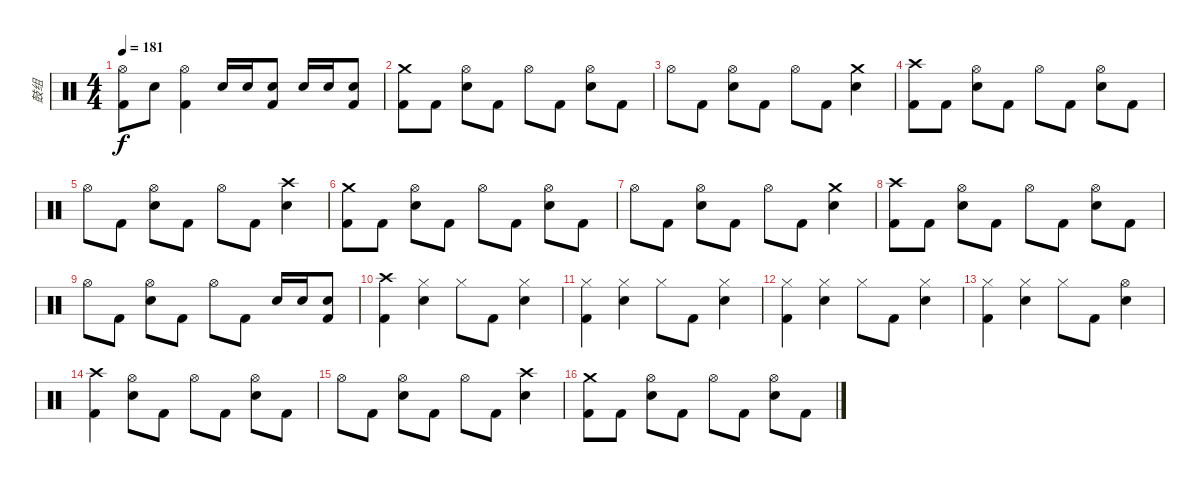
\track ("鼓组" "鼓组") {instrument percussion}
\staff {score}
\articulation defaults
\ts (4 4)
\tempo 181
\clef neutral
\ks c
("Hi-Hat (open)" "Kick (hit) 2").8{dy f} "Snare (hit) 2".8 ("Hi-Hat (open)" "Kick (hit) 2").4 "Snare (hit) 2".16 "Snare (hit) 2".16 ("Snare (hit) 2" "Kick (hit) 2").8 "Snare (hit) 2".16 "Snare (hit) 2".16 ("Snare (hit) 2" "Kick (hit) 2").8 |
("Crash medium (hit)" "Kick (hit) 2").8 "Kick (hit) 2".8 ("Hi-Hat (open)" "Snare (hit) 2").8 "Kick (hit) 2".8 "Hi-Hat (open)".8 "Kick (hit) 2".8 ("Hi-Hat (open)" "Snare (hit) 2").8 "Kick (hit) 2".8 |
"Hi-Hat (open)".8 "Kick (hit) 2".8 ("Hi-Hat (open)" "Snare (hit) 2").8 "Kick (hit) 2".8 "Hi-Hat (open)".8 "Kick (hit) 2".8 ("Crash medium (hit)" "Snare (hit) 2").4 |
("Crash high (hit)" "Kick (hit) 2").8 "Kick (hit) 2".8 ("Hi-Hat (open)" "Snare (hit) 2").8 "Kick (hit) 2".8 "Hi-Hat (open)".8 "Kick (hit) 2".8 ("Hi-Hat (open)" "Snare (hit) 2").8 "Kick (hit) 2".8 |
"Hi-Hat (open)".8 "Kick (hit) 2".8 ("Hi-Hat (open)" "Snare (hit) 2").8 "Kick (hit) 2".8 "Hi-Hat (open)".8 "Kick (hit) 2".8 ("Crash high (hit)" "Snare (hit) 2").4 |
("Crash medium (hit)" "Kick (hit) 2").8 "Kick (hit) 2".8 ("Hi-Hat (open)" "Snare (hit) 2").8 "Kick (hit) 2".8 "Hi-Hat (open)".8 "Kick (hit) 2".8 ("Hi-Hat (open)" "Snare (hit) 2").8 "Kick (hit) 2".8 |
"Hi-Hat (open)".8 "Kick (hit) 2".8 ("Hi-Hat (open)" "Snare (hit) 2").8 "Kick (hit) 2".8 "Hi-Hat (open)".8 "Kick (hit) 2".8 ("Crash medium (hit)" "Snare (hit) 2").4 |
("Crash high (hit)" "Kick (hit) 2").8 "Kick (hit) 2".8 ("Hi-Hat (open)" "Snare (hit) 2").8 "Kick (hit) 2".8 "Hi-Hat (open)".8 "Kick (hit) 2".8 ("Hi-Hat (open)" "Snare (hit) 2").8 "Kick (hit) 2".8 |
"Hi-Hat (open)".8 "Kick (hit) 2".8 ("Hi-Hat (open)" "Snare (hit) 2").8 "Kick (hit) 2".8 "Hi-Hat (open)".8 "Kick (hit) 2".8 "Snare (hit) 2".16 "Snare (hit) 2".16 ("Snare (hit) 2" "Kick (hit) 2").8 |
("Crash high (hit)" "Kick (hit) 2").4 ("Hi-Hat (closed)" "Snare (hit) 2").4 "Hi-Hat (closed)".8 "Kick (hit) 2".8 ("Hi-Hat (closed)" "Snare (hit) 2").4 |
("Hi-Hat (closed)" "Kick (hit) 2").4 ("Hi-Hat (closed)" "Snare (hit) 2").4 "Hi-Hat (closed)".8 "Kick (hit) 2".8 ("Hi-Hat (closed)" "Snare (hit) 2").4 |
("Hi-Hat (closed)" "Kick (hit) 2").4 ("Hi-Hat (closed)" "Snare (hit) 2").4 "Hi-Hat (closed)".8 "Kick (hit) 2".8 ("Hi-Hat (closed)" "Snare (hit) 2").4 |
("Hi-Hat (closed)" "Kick (hit) 2").4 ("Hi-Hat (closed)" "Snare (hit) 2").4 "Hi-Hat (closed)".8 "Kick (hit) 2".8 ("Hi-Hat (open)" "Snare (hit) 2").4 |
("Crash high (hit)" "Kick (hit) 2").4 ("Hi-Hat (open)" "Snare (hit) 2").8 "Kick (hit) 2".8 "Hi-Hat (open)".8 "Kick (hit) 2".8 ("Hi-Hat (open)" "Snare (hit) 2").8 "Kick (hit) 2".8 |
"Hi-Hat (open)".8 "Kick (hit) 2".8 ("Hi-Hat (open)" "Snare (hit) 2").8 "Kick (hit) 2".8 "Hi-Hat (open)".8 "Kick (hit) 2".8 ("Crash high (hit)" "Snare (hit) 2").4 |
("Crash medium (hit)" "Kick (hit) 2").8 "Kick (hit) 2".8 ("Hi-Hat (open)" "Snare (hit) 2").8 "Kick (hit) 2".8 "Hi-Hat (open)".8 "Kick (hit) 2".8 ("Hi-Hat (open)" "Snare (hit) 2").8 "Kick (hit) 2".8
